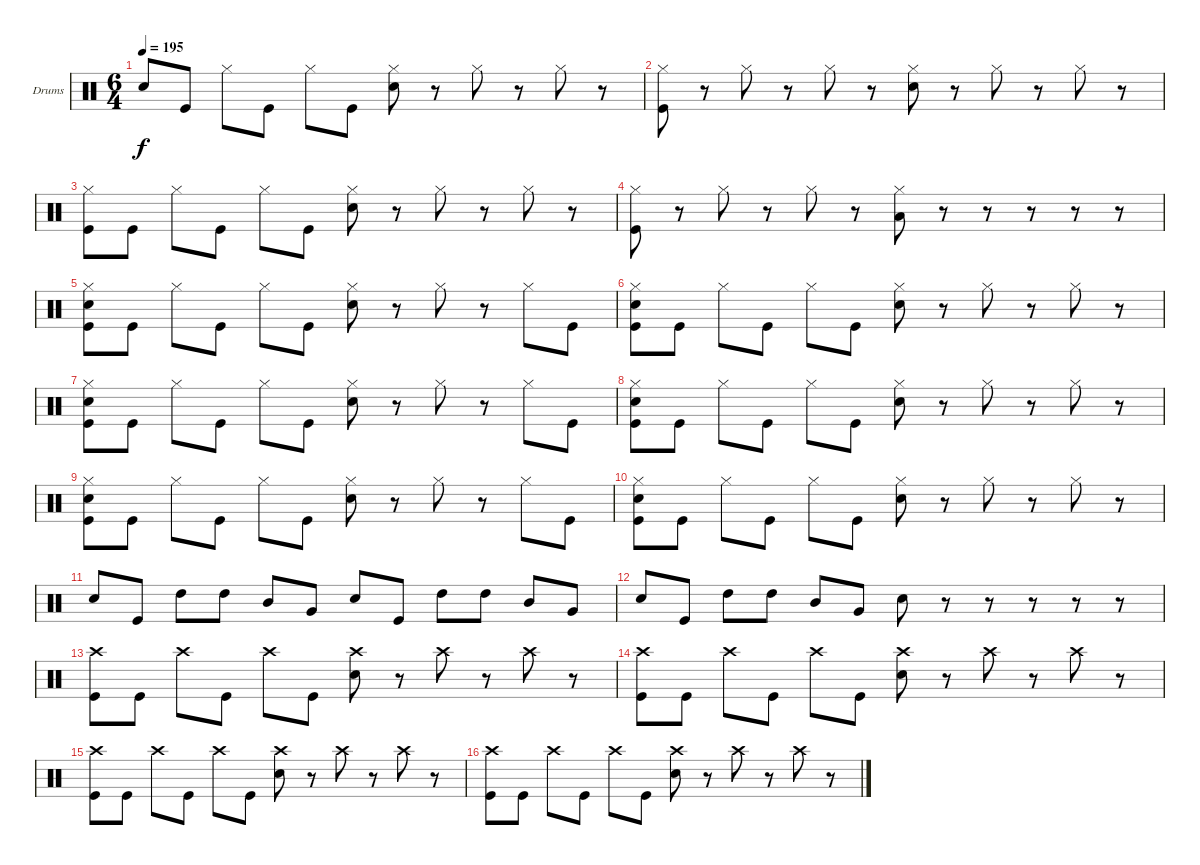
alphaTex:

\bracketExtendMode groupsimilarinstruments
\firstSystemTrackNameOrientation horizontal
\otherSystemsTrackNameOrientation horizontal
\track ("Drumkit" "Drums") {instrument percussion}
\staff {score}
\articulation defaults
\ts (6 4)
\tempo 195
\clef neutral
\ks c "Snare (hit) 2".8{dy f} "Kick (hit)".8 "Hi-Hat (closed)".8 "Kick (hit)".8 "Hi-Hat (closed)".8 "Kick (hit)".8
("Hi-Hat (closed)" "Snare (hit) 2").8 r.8 "Hi-Hat (closed)".8 r.8 "Hi-Hat (closed)".8 r.8 |
("Hi-Hat (closed)" "Kick (hit)").8 r.8 "Hi-Hat (closed)".8 r.8 "Hi-Hat (closed)".8 r.8 ("Hi-Hat (closed)" "Snare (hit) 2").8 r.8 "Hi-Hat (closed)".8 r.8 "Hi-Hat (closed)".8 r.8 |
("Hi-Hat (closed)" "Kick (hit)").8 "Kick (hit)".8 "Hi-Hat (closed)".8 "Kick (hit)".8 "Hi-Hat (closed)".8 "Kick (hit)".8 ("Hi-Hat (closed)" "Snare (hit) 2").8 r.8 "Hi-Hat (closed)".8 r.8 "Hi-Hat (closed)".8 r.8 |
("Hi-Hat (closed)" "Kick (hit)").8 r.8 "Hi-Hat (closed)".8 r.8 "Hi-Hat (closed)".8 r.8 ("Hi-Hat (closed)" "Low Tom (hit)").8 r.8 r.8 r.8 r.8 r.8 |
("Hi-Hat (closed)" "Snare (hit) 2" "Kick (hit)").8 "Kick (hit)".8 "Hi-Hat (closed)".8 "Kick (hit)".8 "Hi-Hat (closed)".8 "Kick (hit)".8 ("Hi-Hat (closed)" "Snare (hit) 2").8 r.8 "Hi-Hat (closed)".8 r.8 "Hi-Hat (closed)".8 "Kick (hit)".8 |
("Hi-Hat (closed)" "Snare (hit) 2" "Kick (hit)").8 "Kick (hit)".8 "Hi-Hat (closed)".8 "Kick (hit)".8 "Hi-Hat (closed)".8 "Kick (hit)".8 ("Hi-Hat (closed)" "Snare (hit) 2").8 r.8 "Hi-Hat (closed)".8 r.8 "Hi-Hat (closed)".8 r.8 |
("Hi-Hat (closed)" "Snare (hit) 2" "Kick (hit)").8 "Kick (hit)".8 "Hi-Hat (closed)".8 "Kick (hit)".8 "Hi-Hat (closed)".8 "Kick (hit)".8 ("Hi-Hat (closed)" "Snare (hit) 2").8 r.8 "Hi-Hat (closed)".8 r.8 "Hi-Hat (closed)".8 "Kick (hit)".8 |
("Hi-Hat (closed)" "Snare (hit) 2" "Kick (hit)").8 "Kick (hit)".8 "Hi-Hat (closed)".8 "Kick (hit)".8 "Hi-Hat (closed)".8 "Kick (hit)".8 ("Hi-Hat (closed)" "Snare (hit) 2").8 r.8 "Hi-Hat (closed)".8 r.8 "Hi-Hat (closed)".8 r.8 |
("Hi-Hat (closed)" "Snare (hit) 2" "Kick (hit)").8 "Kick (hit)".8 "Hi-Hat (closed)".8 "Kick (hit)".8 "Hi-Hat (closed)".8 "Kick (hit)".8 ("Hi-Hat (closed)" "Snare (hit) 2").8 r.8 "Hi-Hat (closed)".8 r.8 "Hi-Hat (closed)".8 "Kick (hit)".8 |
("Hi-Hat (closed)" "Snare (hit) 2" "Kick (hit)").8 "Kick (hit)".8 "Hi-Hat (closed)".8 "Kick (hit)".8 "Hi-Hat (closed)".8 "Kick (hit)".8 ("Hi-Hat (closed)" "Snare (hit) 2").8 r.8 "Hi-Hat (closed)".8 r.8 "Hi-Hat (closed)".8 r.8 |
"Snare (hit) 2".8 "Kick (hit)".8 "High Tom (hit)".8 "High Tom (hit)".8 "Mid Tom (hit)".8 "Very Low Tom (hit)".8 "Snare (hit) 2".8 "Kick (hit)".8 "High Tom (hit)".8 "High Tom (hit)".8 "Mid Tom (hit)".8 "Very Low Tom (hit)".8 |
"Snare (hit) 2".8 "Kick (hit)".8 "High Tom (hit)".8 "High Tom (hit)".8 "Mid Tom (hit)".8 "Very Low Tom (hit)".8 "Snare (hit) 2".8 r.8 r.8 r.8 r.8 r.8 |
("Crash high (hit)" "Kick (hit)").8 "Kick (hit)".8 "Crash high (hit)".8 "Kick (hit)".8 "Crash high (hit)".8 "Kick (hit)".8 ("Crash high (hit)" "Snare (hit) 2").8 r.8 "Crash high (hit)".8 r.8 "Crash high (hit)".8 r.8 |
("Crash high (hit)" "Kick (hit)").8 "Kick (hit)".8 "Crash high (hit)".8 "Kick (hit)".8 "Crash high (hit)".8 "Kick (hit)".8 ("Crash high (hit)" "Snare (hit) 2").8 r.8 "Crash high (hit)".8 r.8 "Crash high (hit)".8 r.8 |
("Crash high (hit)" "Kick (hit)").8 "Kick (hit)".8 "Crash high (hit)".8 "Kick (hit)".8 "Crash high (hit)".8 "Kick (hit)".8 ("Crash high (hit)" "Snare (hit) 2").8 r.8 "Crash high (hit)".8 r.8 "Crash high (hit)".8 r.8 |
("Crash high (hit)" "Kick (hit)").8 "Kick (hit)".8 "Crash high (hit)".8 "Kick (hit)".8 "Crash high (hit)".8 "Kick (hit)".8 ("Crash high (hit)" "Snare (hit) 2").8 r.8 "Crash high (hit)".8 r.8 "Crash high (hit)".8 r.8
